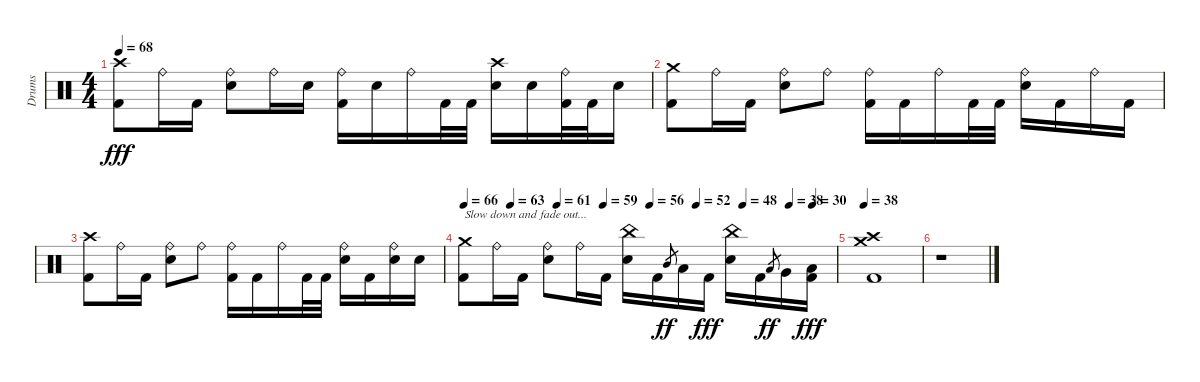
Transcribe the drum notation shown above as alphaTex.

\track ("Drums" "Drums") {instrument percussion}
\staff {score}
\articulation defaults
\ts (4 4)
\tempo 68
\clef neutral
\ks c
("Crash high (hit)" "Kick (hit) 2").8{dy fff} "Ride (bell)".16 "Kick (hit) 2".16 ("Ride (bell)" "Electric Snare (hit)").8 "Ride (bell)".16 "Electric Snare (hit)".16 ("Ride (bell)" "Kick (hit) 2").16 "Electric Snare (hit)".16 "Ride (bell)".16 "Kick (hit) 2".32 "Kick (hit) 2".32 ("Crash high (hit)" "Electric Snare (hit)").16 "Electric Snare (hit)".16 ("Ride (bell)" "Kick (hit) 2").32 "Kick (hit) 2".32 "Electric Snare (hit)".16 |
("Crash medium (hit)" "Kick (hit) 2").8 "Ride (bell)".16 "Kick (hit) 2".16 ("Ride (bell)" "Electric Snare (hit)").8 "Ride (bell)".8 ("Ride (bell)" "Kick (hit) 2").16 "Kick (hit) 2".16 "Ride (bell)".16 "Kick (hit) 2".32 "Kick (hit) 2".32 ("Ride (bell)" "Electric Snare (hit)").16 "Kick (hit) 2".16 "Ride (bell)".16 "Kick (hit) 2".16 |
("Crash high (hit)" "Kick (hit) 2").8 "Ride (bell)".16 "Kick (hit) 2".16 ("Ride (bell)" "Electric Snare (hit)").8 "Ride (bell)".8 ("Ride (bell)" "Kick (hit) 2").16 "Kick (hit) 2".16 "Ride (bell)".16 "Kick (hit) 2".32 "Kick (hit) 2".32 ("Ride (bell)" "Electric Snare (hit)").16 "Kick (hit) 2".16 ("Ride (bell)" "Electric Snare (hit)").16 "Electric Snare (hit)".16 |
\tempo 66
\tempo (63 0.125)
\tempo (61 0.25)
\tempo (59 0.375)
\tempo (56 0.5)
\tempo (52 0.625)
\tempo (48 0.75)
\tempo (38 0.875)
\tempo (30 0.9375)
("Crash medium (hit)" "Kick (hit) 2").8{txt "Slow down and fade out..."} "Ride (bell)".16 "Kick (hit) 2".16 ("Ride (bell)" "Electric Snare (hit)").8 "Ride (bell)".16 "Kick (hit) 2".16 ("China (hit)" "Electric Snare (hit)").16 "Kick (hit) 2".16 "Mid Tom (hit)".8{gr dy ff} "Low Tom (hit)".16 "Kick (hit) 2".16{dy fff} ("China (hit)" "Electric Snare (hit)").16 "Kick (hit) 2".16 "Low Tom (hit)".8{gr dy ff} "Very Low Tom (hit)".16 ("Low Floor Tom (hit)" "Kick (hit) 2").16{dy fff} |
\tempo 38
("Crash medium (hit)" "Crash high (hit)" "Kick (hit) 2").1{volume 0} |
r.1
